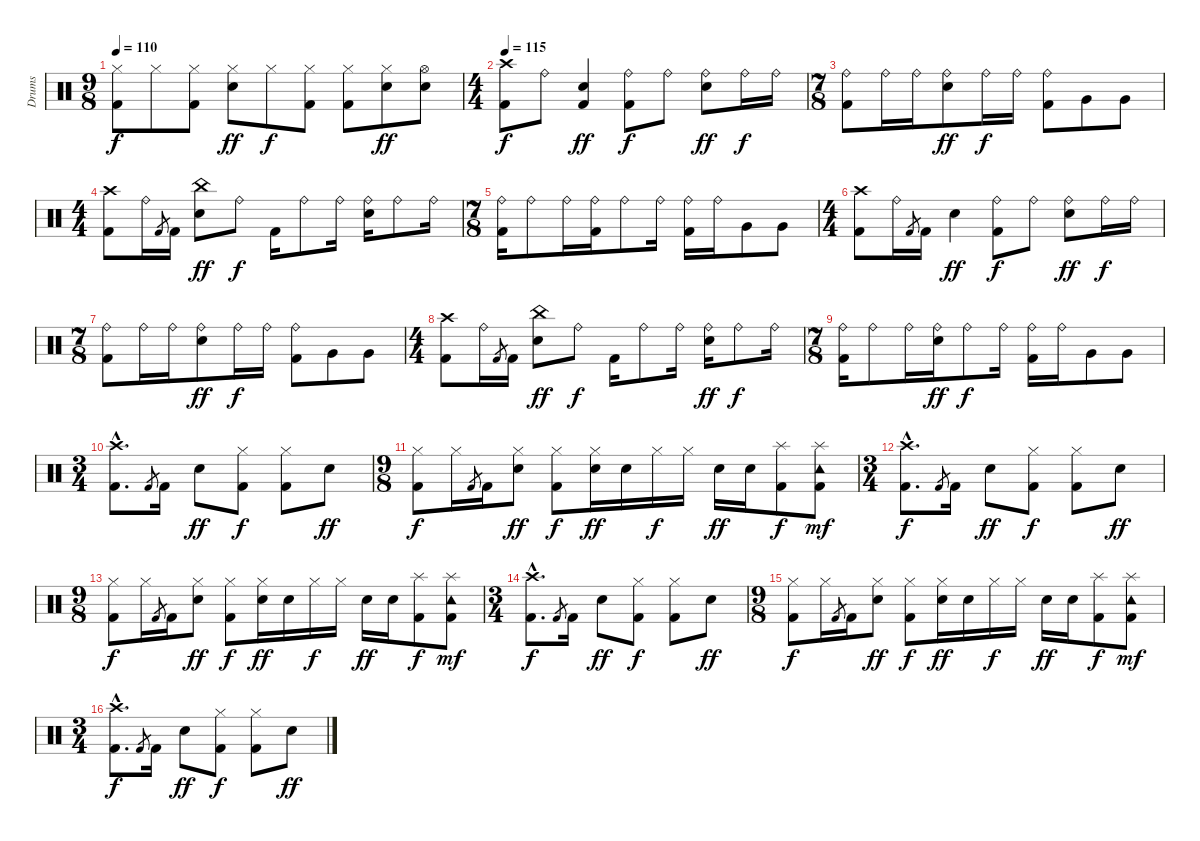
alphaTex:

\track ("Drums" "Drums") {instrument percussion}
\staff {score}
\articulation defaults
\ts (9 8)
\tempo 110
\clef neutral
\ks c
("Kick (hit) 2" "Hi-Hat (closed)").8{dy f} "Hi-Hat (closed)".8 ("Kick (hit) 2" "Hi-Hat (closed)").8 ("Electric Snare (hit)" "Hi-Hat (closed)").8{dy ff} "Hi-Hat (closed)".8{dy f} ("Kick (hit) 2" "Hi-Hat (closed)").8 ("Kick (hit) 2" "Hi-Hat (closed)").8 ("Electric Snare (hit)" "Hi-Hat (closed)").8{dy ff} ("Electric Snare (hit)" "Hi-Hat (open)").8 |
\ts (4 4)
\tempo 115
("Kick (hit) 2" "Crash high (hit)").8{dy f} "Ride (bell)".8 ("Kick (hit) 2" "Electric Snare (hit)").4{dy ff} ("Kick (hit) 2" "Ride (bell)").8{dy f} "Ride (bell)".8 ("Electric Snare (hit)" "Ride (bell)").8{dy ff} "Ride (bell)".16{dy f} "Ride (bell)".16 |
\ts (7 8)
("Kick (hit) 2" "Ride (bell)").8 "Ride (bell)".16 "Ride (bell)".16 ("Electric Snare (hit)" "Ride (bell)").8{dy ff} "Ride (bell)".16{dy f} "Ride (bell)".16 ("Kick (hit) 2" "Ride (bell)").8 "Very Low Tom (hit)".8 "Very Low Tom (hit)".8 |
\ts (4 4)
("Kick (hit) 2" "Crash high (hit)").8 "Ride (bell)".16 "Kick (hit) 2".8{gr} "Kick (hit) 2".16 ("Electric Snare (hit)" "China (hit)").8{dy ff} "Ride (bell)".8{dy f} "Kick (hit) 2".16 "Ride (bell)".8 "Ride (bell)".16 ("Electric Snare (hit)" "Ride (bell)").16 "Ride (bell)".8 "Ride (bell)".16 |
\ts (7 8)
("Kick (hit) 2" "Ride (bell)").16 "Ride (bell)".8 "Ride (bell)".16 ("Kick (hit) 2" "Ride (bell)").16 "Ride (bell)".8 "Ride (bell)".16 ("Kick (hit) 2" "Ride (bell)").16 "Ride (bell)".16 "Very Low Tom (hit)".8 "Very Low Tom (hit)".8 |
\ts (4 4)
("Kick (hit) 2" "Crash high (hit)").8 "Ride (bell)".16 "Kick (hit) 2".8{gr} "Kick (hit) 2".16 "Electric Snare (hit)".4{dy ff} ("Kick (hit) 2" "Ride (bell)").8{dy f} "Ride (bell)".8 ("Electric Snare (hit)" "Ride (bell)").8{dy ff} "Ride (bell)".16{dy f} "Ride (bell)".16 |
\ts (7 8)
("Kick (hit) 2" "Ride (bell)").8 "Ride (bell)".16 "Ride (bell)".16 ("Electric Snare (hit)" "Ride (bell)").8{dy ff} "Ride (bell)".16{dy f} "Ride (bell)".16 ("Kick (hit) 2" "Ride (bell)").8 "Very Low Tom (hit)".8 "Very Low Tom (hit)".8 |
\ts (4 4)
("Kick (hit) 2" "Crash high (hit)").8 "Ride (bell)".16 "Kick (hit) 2".8{gr} "Kick (hit) 2".16 ("Electric Snare (hit)" "China (hit)").8{dy ff} "Ride (bell)".8{dy f} "Kick (hit) 2".16 "Ride (bell)".8 "Ride (bell)".16 ("Electric Snare (hit)" "Ride (bell)").16{dy ff} "Ride (bell)".8{dy f} "Ride (bell)".16 |
\ts (7 8)
("Kick (hit) 2" "Ride (bell)").16 "Ride (bell)".8 "Ride (bell)".16 ("Electric Snare (hit)" "Ride (bell)").16{dy ff} "Ride (bell)".8{dy f} "Ride (bell)".16 ("Kick (hit) 2" "Ride (bell)").16 "Ride (bell)".16 "Very Low Tom (hit)".8 "Very Low Tom (hit)".8 |
\ts (3 4)
("Kick (hit) 2"{hac} "Crash high (hit)"{hac}).8{d} "Kick (hit) 2".8{gr} "Kick (hit) 2".16 "Electric Snare (hit)".8{dy ff} ("Kick (hit) 2" "Hi-Hat (closed)").8{dy f} ("Kick (hit) 2" "Hi-Hat (closed)").8 "Electric Snare (hit)".8{dy ff} |
\ts (9 8)
("Kick (hit) 2" "Hi-Hat (closed)").8{dy f} "Hi-Hat (closed)".16 "Kick (hit) 2".8{gr} "Kick (hit) 2".16 ("Electric Snare (hit)" "Hi-Hat (closed)").8{dy ff} ("Kick (hit) 2" "Hi-Hat (closed)").8{dy f} ("Electric Snare (hit)" "Hi-Hat (closed)").16{dy ff} "Electric Snare (hit)".16 "Hi-Hat (closed)".16{dy f} "Hi-Hat (closed)".16 "Electric Snare (hit)".16{dy ff} "Electric Snare (hit)".16 ("Kick (hit) 2" "Splash (hit)").8{dy f} ("Kick (hit) 2" "Tambourine (hit)" "Splash (hit)").8{dy mf} |
\ts (3 4)
("Kick (hit) 2"{hac} "Crash high (hit)"{hac}).8{d dy f} "Kick (hit) 2".8{gr} "Kick (hit) 2".16 "Electric Snare (hit)".8{dy ff} ("Kick (hit) 2" "Hi-Hat (closed)").8{dy f} ("Kick (hit) 2" "Hi-Hat (closed)").8 "Electric Snare (hit)".8{dy ff} |
\ts (9 8)
("Kick (hit) 2" "Hi-Hat (closed)").8{dy f} "Hi-Hat (closed)".16 "Kick (hit) 2".8{gr} "Kick (hit) 2".16 ("Electric Snare (hit)" "Hi-Hat (closed)").8{dy ff} ("Kick (hit) 2" "Hi-Hat (closed)").8{dy f} ("Electric Snare (hit)" "Hi-Hat (closed)").16{dy ff} "Electric Snare (hit)".16 "Hi-Hat (closed)".16{dy f} "Hi-Hat (closed)".16 "Electric Snare (hit)".16{dy ff} "Electric Snare (hit)".16 ("Kick (hit) 2" "Splash (hit)").8{dy f} ("Kick (hit) 2" "Tambourine (hit)" "Splash (hit)").8{dy mf} |
\ts (3 4)
("Kick (hit) 2"{hac} "Crash high (hit)"{hac}).8{d dy f} "Kick (hit) 2".8{gr} "Kick (hit) 2".16 "Electric Snare (hit)".8{dy ff} ("Kick (hit) 2" "Hi-Hat (closed)").8{dy f} ("Kick (hit) 2" "Hi-Hat (closed)").8 "Electric Snare (hit)".8{dy ff} |
\ts (9 8)
("Kick (hit) 2" "Hi-Hat (closed)").8{dy f} "Hi-Hat (closed)".16 "Kick (hit) 2".8{gr} "Kick (hit) 2".16 ("Electric Snare (hit)" "Hi-Hat (closed)").8{dy ff} ("Kick (hit) 2" "Hi-Hat (closed)").8{dy f} ("Electric Snare (hit)" "Hi-Hat (closed)").16{dy ff} "Electric Snare (hit)".16 "Hi-Hat (closed)".16{dy f} "Hi-Hat (closed)".16 "Electric Snare (hit)".16{dy ff} "Electric Snare (hit)".16 ("Kick (hit) 2" "Splash (hit)").8{dy f} ("Kick (hit) 2" "Tambourine (hit)" "Splash (hit)").8{dy mf} |
\ts (3 4)
("Kick (hit) 2"{hac} "Crash high (hit)"{hac}).8{d dy f} "Kick (hit) 2".8{gr} "Kick (hit) 2".16 "Electric Snare (hit)".8{dy ff} ("Kick (hit) 2" "Hi-Hat (closed)").8{dy f} ("Kick (hit) 2" "Hi-Hat (closed)").8 "Electric Snare (hit)".8{dy ff}
